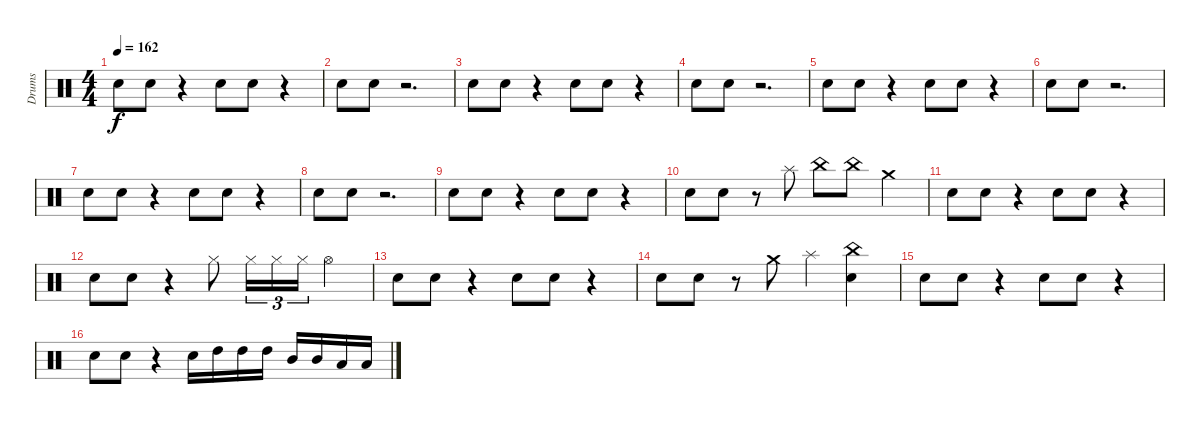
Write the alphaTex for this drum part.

\track ("Drums" "Drums") {instrument percussion}
\staff {score}
\articulation defaults
\ts (4 4)
\tempo 162
\clef neutral
\ks c "Snare (hit) 2".8{dy f} "Snare (hit) 2".8
r.4 "Snare (hit) 2".8 "Snare (hit) 2".8 r.4 |
"Snare (hit) 2".8 "Snare (hit) 2".8 r.2{d} |
"Snare (hit) 2".8 "Snare (hit) 2".8 r.4 "Snare (hit) 2".8 "Snare (hit) 2".8 r.4 |
"Snare (hit) 2".8 "Snare (hit) 2".8 r.2{d} |
"Snare (hit) 2".8 "Snare (hit) 2".8 r.4 "Snare (hit) 2".8 "Snare (hit) 2".8 r.4 |
"Snare (hit) 2".8 "Snare (hit) 2".8 r.2{d} |
"Snare (hit) 2".8 "Snare (hit) 2".8 r.4 "Snare (hit) 2".8 "Snare (hit) 2".8 r.4 |
"Snare (hit) 2".8 "Snare (hit) 2".8 r.2{d} |
"Snare (hit) 2".8 "Snare (hit) 2".8 r.4 "Snare (hit) 2".8 "Snare (hit) 2".8 r.4 |
"Snare (hit) 2".8 "Snare (hit) 2".8 r.8 "Splash (hit)".8 "China (hit)".8 "China (hit)".8 "Crash medium (hit)".4 |
"Snare (hit) 2".8 "Snare (hit) 2".8 r.4 "Snare (hit) 2".8 "Snare (hit) 2".8 r.4 |
"Snare (hit) 2".8 "Snare (hit) 2".8 r.4 "Hi-Hat (closed)".8 "Hi-Hat (closed)".16{tu (3 2)} "Hi-Hat (closed)".16{tu (3 2)} "Hi-Hat (closed)".16{tu (3 2)} "Hi-Hat (open)".4 |
"Snare (hit) 2".8 "Snare (hit) 2".8 r.4 "Snare (hit) 2".8 "Snare (hit) 2".8 r.4 |
"Snare (hit) 2".8 "Snare (hit) 2".8 r.8 "Crash medium (hit)".8 "Splash (hit)".4 ("China (hit)" "Snare (hit) 2").4 |
"Snare (hit) 2".8 "Snare (hit) 2".8 r.4 "Snare (hit) 2".8 "Snare (hit) 2".8 r.4 |
"Snare (hit) 2".8 "Snare (hit) 2".8 r.4 "Snare (hit) 2".16 "High Tom (hit)".16 "High Tom (hit)".16 "High Tom (hit)".16 "Mid Tom (hit)".16 "Mid Tom (hit)".16 "Low Tom (hit)".16 "Low Tom (hit)".16
